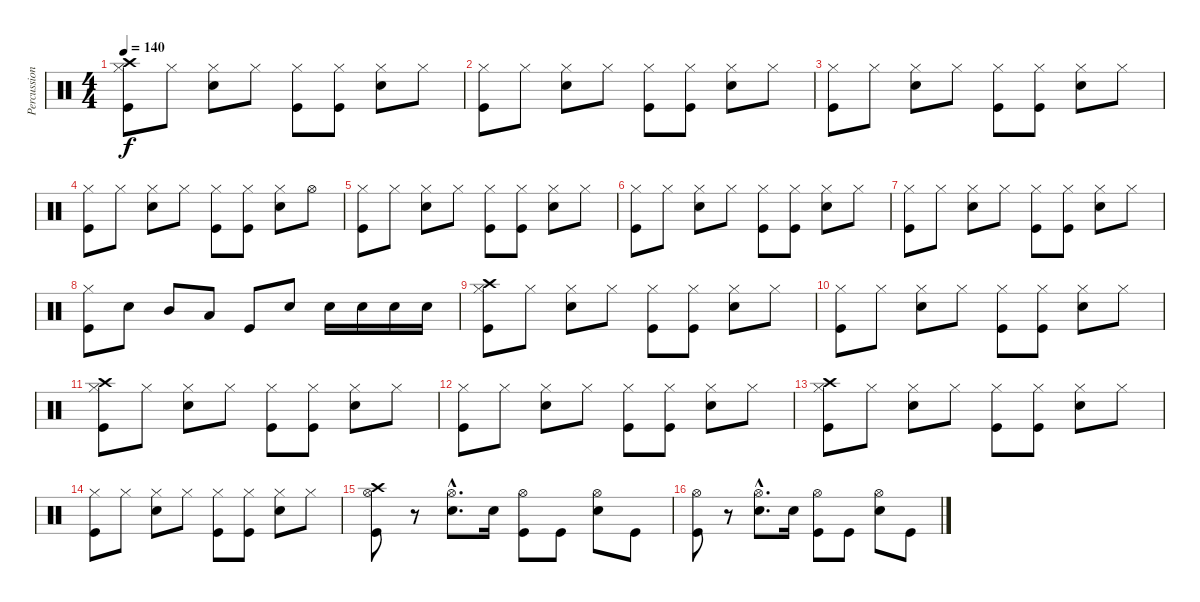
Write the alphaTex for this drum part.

\track ("Percussion" "Percussion") {instrument percussion}
\staff {score}
\articulation defaults
\ts (4 4)
\tempo 140
\clef neutral
\ks c
("Kick (hit)" "Hi-Hat (closed)" "Crash high (hit)").8{dy f} "Hi-Hat (closed)".8 ("Snare (hit) 2" "Hi-Hat (closed)").8 "Hi-Hat (closed)".8 ("Kick (hit)" "Hi-Hat (closed)").8 ("Kick (hit)" "Hi-Hat (closed)").8 ("Snare (hit) 2" "Hi-Hat (closed)").8 "Hi-Hat (closed)".8 |
("Kick (hit)" "Hi-Hat (closed)").8 "Hi-Hat (closed)".8 ("Snare (hit) 2" "Hi-Hat (closed)").8 "Hi-Hat (closed)".8 ("Kick (hit)" "Hi-Hat (closed)").8 ("Kick (hit)" "Hi-Hat (closed)").8 ("Snare (hit) 2" "Hi-Hat (closed)").8 "Hi-Hat (closed)".8 |
("Kick (hit)" "Hi-Hat (closed)").8 "Hi-Hat (closed)".8 ("Snare (hit) 2" "Hi-Hat (closed)").8 "Hi-Hat (closed)".8 ("Kick (hit)" "Hi-Hat (closed)").8 ("Kick (hit)" "Hi-Hat (closed)").8 ("Snare (hit) 2" "Hi-Hat (closed)").8 "Hi-Hat (closed)".8 |
("Kick (hit)" "Hi-Hat (closed)").8 "Hi-Hat (closed)".8 ("Snare (hit) 2" "Hi-Hat (closed)").8 "Hi-Hat (closed)".8 ("Kick (hit)" "Hi-Hat (closed)").8 ("Kick (hit)" "Hi-Hat (closed)").8 ("Snare (hit) 2" "Hi-Hat (closed)").8 "Hi-Hat (open)".8 |
("Kick (hit)" "Hi-Hat (closed)").8 "Hi-Hat (closed)".8 ("Snare (hit) 2" "Hi-Hat (closed)").8 "Hi-Hat (closed)".8 ("Kick (hit)" "Hi-Hat (closed)").8 ("Kick (hit)" "Hi-Hat (closed)").8 ("Snare (hit) 2" "Hi-Hat (closed)").8 "Hi-Hat (closed)".8 |
("Kick (hit)" "Hi-Hat (closed)").8 "Hi-Hat (closed)".8 ("Snare (hit) 2" "Hi-Hat (closed)").8 "Hi-Hat (closed)".8 ("Kick (hit)" "Hi-Hat (closed)").8 ("Kick (hit)" "Hi-Hat (closed)").8 ("Snare (hit) 2" "Hi-Hat (closed)").8 "Hi-Hat (closed)".8 |
("Kick (hit)" "Hi-Hat (closed)").8 "Hi-Hat (closed)".8 ("Snare (hit) 2" "Hi-Hat (closed)").8 "Hi-Hat (closed)".8 ("Kick (hit)" "Hi-Hat (closed)").8 ("Kick (hit)" "Hi-Hat (closed)").8 ("Snare (hit) 2" "Hi-Hat (closed)").8 "Hi-Hat (closed)".8 |
("Kick (hit)" "Hi-Hat (closed)").8 "Snare (hit) 2".8 "Mid Tom (hit)".8 "Low Tom (hit)".8 "Kick (hit)".8 "Snare (hit) 2".8 "Snare (hit) 2".16 "Snare (hit) 2".16 "Snare (hit) 2".16 "Snare (hit) 2".16 |
("Kick (hit)" "Hi-Hat (closed)" "Crash high (hit)").8 "Hi-Hat (closed)".8 ("Snare (hit) 2" "Hi-Hat (closed)").8 "Hi-Hat (closed)".8 ("Kick (hit)" "Hi-Hat (closed)").8 ("Kick (hit)" "Hi-Hat (closed)").8 ("Snare (hit) 2" "Hi-Hat (closed)").8 "Hi-Hat (closed)".8 |
("Kick (hit)" "Hi-Hat (closed)").8 "Hi-Hat (closed)".8 ("Snare (hit) 2" "Hi-Hat (closed)").8 "Hi-Hat (closed)".8 ("Kick (hit)" "Hi-Hat (closed)").8 ("Kick (hit)" "Hi-Hat (closed)").8 ("Snare (hit) 2" "Hi-Hat (closed)").8 "Hi-Hat (closed)".8 |
("Kick (hit)" "Hi-Hat (closed)" "Crash high (hit)").8 "Hi-Hat (closed)".8 ("Snare (hit) 2" "Hi-Hat (closed)").8 "Hi-Hat (closed)".8 ("Kick (hit)" "Hi-Hat (closed)").8 ("Kick (hit)" "Hi-Hat (closed)").8 ("Snare (hit) 2" "Hi-Hat (closed)").8 "Hi-Hat (closed)".8 |
("Kick (hit)" "Hi-Hat (closed)").8 "Hi-Hat (closed)".8 ("Snare (hit) 2" "Hi-Hat (closed)").8 "Hi-Hat (closed)".8 ("Kick (hit)" "Hi-Hat (closed)").8 ("Kick (hit)" "Hi-Hat (closed)").8 ("Snare (hit) 2" "Hi-Hat (closed)").8 "Hi-Hat (closed)".8 |
("Kick (hit)" "Hi-Hat (closed)" "Crash high (hit)").8 "Hi-Hat (closed)".8 ("Snare (hit) 2" "Hi-Hat (closed)").8 "Hi-Hat (closed)".8 ("Kick (hit)" "Hi-Hat (closed)").8 ("Kick (hit)" "Hi-Hat (closed)").8 ("Snare (hit) 2" "Hi-Hat (closed)").8 "Hi-Hat (closed)".8 |
("Kick (hit)" "Hi-Hat (closed)").8 "Hi-Hat (closed)".8 ("Snare (hit) 2" "Hi-Hat (closed)").8 "Hi-Hat (closed)".8 ("Kick (hit)" "Hi-Hat (closed)").8 ("Kick (hit)" "Hi-Hat (closed)").8 ("Snare (hit) 2" "Hi-Hat (closed)").8 "Hi-Hat (closed)".8 |
("Kick (hit)" "Hi-Hat (open)" "Crash high (hit)").8 r.8 ("Snare (hit) 2"{hac} "Hi-Hat (open)"{hac}).8{d} "Snare (hit) 2".16 ("Kick (hit)" "Hi-Hat (open)").8 "Kick (hit)".8 ("Snare (hit) 2" "Hi-Hat (open)").8 "Kick (hit)".8 |
("Kick (hit)" "Hi-Hat (open)").8 r.8 ("Snare (hit) 2"{hac} "Hi-Hat (open)"{hac}).8{d} "Snare (hit) 2".16 ("Kick (hit)" "Hi-Hat (open)").8 "Kick (hit)".8 ("Snare (hit) 2" "Hi-Hat (open)").8 "Kick (hit)".8
